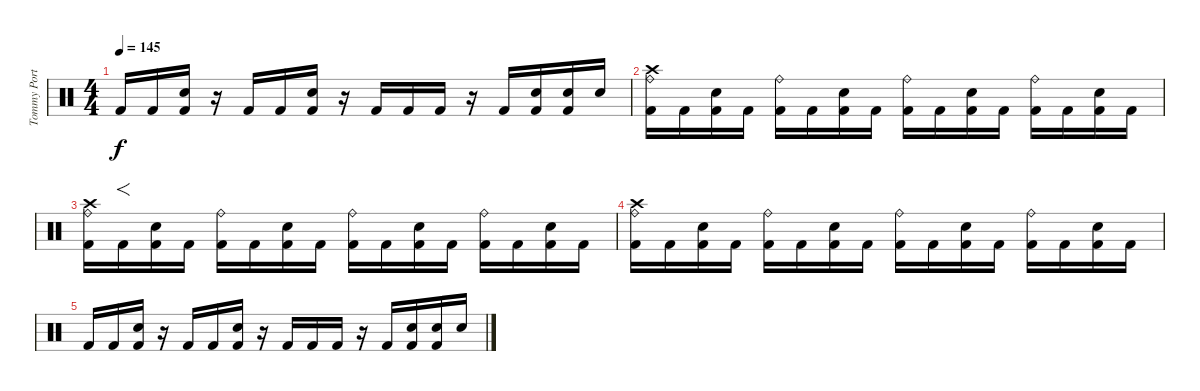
\track ("Tommy Portino" "Tommy Port") {instrument percussion}
\staff {score}
\articulation defaults
\ts (4 4)
\tempo 145
\clef neutral
\ks c "Kick (hit) 2".16{dy f} "Kick (hit) 2".16
("Kick (hit) 2" "Electric Snare (hit)").16 r.16 "Kick (hit) 2".16 "Kick (hit) 2".16 ("Kick (hit) 2" "Electric Snare (hit)").16 r.16 "Kick (hit) 2".16 "Kick (hit) 2".16 "Kick (hit) 2".16 r.16 "Kick (hit) 2".16 ("Kick (hit) 2" "Electric Snare (hit)").16 ("Kick (hit) 2" "Electric Snare (hit)").16 "Electric Snare (hit)".16 |
("Kick (hit) 2" "Ride (bell)" "Crash high (hit)").16 "Kick (hit) 2".16 ("Kick (hit) 2" "Electric Snare (hit)").16 "Kick (hit) 2".16 ("Kick (hit) 2" "Ride (bell)").16 "Kick (hit) 2".16 ("Kick (hit) 2" "Electric Snare (hit)").16 "Kick (hit) 2".16 ("Kick (hit) 2" "Ride (bell)").16 "Kick (hit) 2".16 ("Kick (hit) 2" "Electric Snare (hit)").16 "Kick (hit) 2".16 ("Kick (hit) 2" "Ride (bell)").16 "Kick (hit) 2".16 ("Kick (hit) 2" "Electric Snare (hit)").16 "Kick (hit) 2".16 |
("Kick (hit) 2" "Ride (bell)" "Crash high (hit)").16{volume 0} "Kick (hit) 2".16{f} ("Kick (hit) 2" "Electric Snare (hit)").16 "Kick (hit) 2".16 ("Kick (hit) 2" "Ride (bell)").16 "Kick (hit) 2".16 ("Kick (hit) 2" "Electric Snare (hit)").16 "Kick (hit) 2".16 ("Kick (hit) 2" "Ride (bell)").16 "Kick (hit) 2".16 ("Kick (hit) 2" "Electric Snare (hit)").16 "Kick (hit) 2".16 ("Kick (hit) 2" "Ride (bell)").16 "Kick (hit) 2".16 ("Kick (hit) 2" "Electric Snare (hit)").16 "Kick (hit) 2".16 |
("Kick (hit) 2" "Ride (bell)" "Crash high (hit)").16 "Kick (hit) 2".16 ("Kick (hit) 2" "Electric Snare (hit)").16 "Kick (hit) 2".16 ("Kick (hit) 2" "Ride (bell)").16 "Kick (hit) 2".16 ("Kick (hit) 2" "Electric Snare (hit)").16 "Kick (hit) 2".16 ("Kick (hit) 2" "Ride (bell)").16 "Kick (hit) 2".16 ("Kick (hit) 2" "Electric Snare (hit)").16 "Kick (hit) 2".16 ("Kick (hit) 2" "Ride (bell)").16 "Kick (hit) 2".16 ("Kick (hit) 2" "Electric Snare (hit)").16 "Kick (hit) 2".16 |
"Kick (hit) 2".16 "Kick (hit) 2".16 ("Kick (hit) 2" "Electric Snare (hit)").16 r.16 "Kick (hit) 2".16 "Kick (hit) 2".16 ("Kick (hit) 2" "Electric Snare (hit)").16 r.16 "Kick (hit) 2".16 "Kick (hit) 2".16 "Kick (hit) 2".16 r.16 "Kick (hit) 2".16 ("Kick (hit) 2" "Electric Snare (hit)").16 ("Kick (hit) 2" "Electric Snare (hit)").16 "Electric Snare (hit)".16
